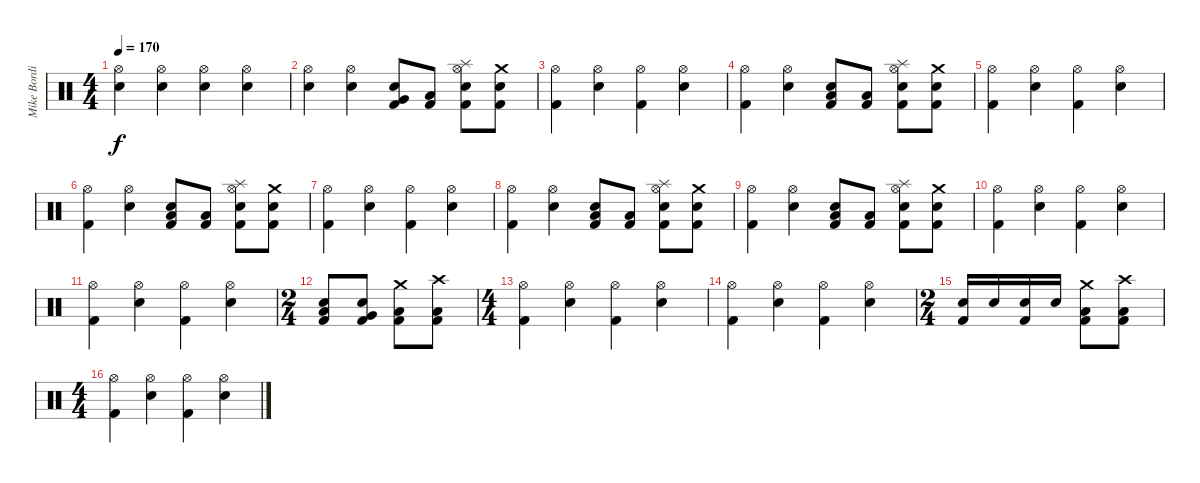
\track ("Mike Bordin" "Mike Bordi") {instrument percussion}
\staff {score}
\articulation defaults
\ts (4 4)
\tempo 170
\clef neutral
\ks c
("Hi-Hat (open)" "Electric Snare (hit)").4{dy f} ("Hi-Hat (open)" "Electric Snare (hit)").4 ("Hi-Hat (open)" "Electric Snare (hit)").4 ("Hi-Hat (open)" "Electric Snare (hit)").4 |
("Hi-Hat (open)" "Electric Snare (hit)").4 ("Hi-Hat (open)" "Electric Snare (hit)").4 ("Electric Snare (hit)" "Very Low Tom (hit)" "Kick (hit) 2").8 ("Low Floor Tom (hit)" "Kick (hit) 2").8 ("Splash (hit)" "Hi-Hat (open)" "Electric Snare (hit)" "Kick (hit) 2").8 ("Crash medium (hit)" "Electric Snare (hit)" "Kick (hit) 2").8 |
("Hi-Hat (open)" "Kick (hit) 2").4 ("Hi-Hat (open)" "Electric Snare (hit)").4 ("Hi-Hat (open)" "Kick (hit) 2").4 ("Hi-Hat (open)" "Electric Snare (hit)").4 |
("Hi-Hat (open)" "Kick (hit) 2").4 ("Hi-Hat (open)" "Electric Snare (hit)").4 ("Electric Snare (hit)" "Low Floor Tom (hit)" "Kick (hit) 2").8 ("Low Floor Tom (hit)" "Kick (hit) 2").8 ("Splash (hit)" "Hi-Hat (open)" "Electric Snare (hit)" "Kick (hit) 2").8 ("Crash medium (hit)" "Electric Snare (hit)" "Kick (hit) 2").8 |
("Hi-Hat (open)" "Kick (hit) 2").4 ("Hi-Hat (open)" "Electric Snare (hit)").4 ("Hi-Hat (open)" "Kick (hit) 2").4 ("Hi-Hat (open)" "Electric Snare (hit)").4 |
("Hi-Hat (open)" "Kick (hit) 2").4 ("Hi-Hat (open)" "Electric Snare (hit)").4 ("Electric Snare (hit)" "Low Floor Tom (hit)" "Kick (hit) 2").8 ("Low Floor Tom (hit)" "Kick (hit) 2").8 ("Splash (hit)" "Hi-Hat (open)" "Electric Snare (hit)" "Kick (hit) 2").8 ("Crash medium (hit)" "Electric Snare (hit)" "Kick (hit) 2").8 |
("Hi-Hat (open)" "Kick (hit) 2").4 ("Hi-Hat (open)" "Electric Snare (hit)").4 ("Hi-Hat (open)" "Kick (hit) 2").4 ("Hi-Hat (open)" "Electric Snare (hit)").4 |
("Hi-Hat (open)" "Kick (hit) 2").4 ("Hi-Hat (open)" "Electric Snare (hit)").4 ("Electric Snare (hit)" "Low Floor Tom (hit)" "Kick (hit) 2").8 ("Low Floor Tom (hit)" "Kick (hit) 2").8 ("Splash (hit)" "Hi-Hat (open)" "Electric Snare (hit)" "Kick (hit) 2").8 ("Crash medium (hit)" "Electric Snare (hit)" "Kick (hit) 2").8 |
("Hi-Hat (open)" "Kick (hit) 2").4 ("Hi-Hat (open)" "Electric Snare (hit)").4 ("Electric Snare (hit)" "Low Floor Tom (hit)" "Kick (hit) 2").8 ("Low Floor Tom (hit)" "Kick (hit) 2").8 ("Splash (hit)" "Hi-Hat (open)" "Electric Snare (hit)" "Kick (hit) 2").8 ("Crash medium (hit)" "Electric Snare (hit)" "Kick (hit) 2").8 |
("Hi-Hat (open)" "Kick (hit) 2").4 ("Hi-Hat (open)" "Electric Snare (hit)").4 ("Hi-Hat (open)" "Kick (hit) 2").4 ("Hi-Hat (open)" "Electric Snare (hit)").4 |
("Hi-Hat (open)" "Kick (hit) 2").4 ("Hi-Hat (open)" "Electric Snare (hit)").4 ("Hi-Hat (open)" "Kick (hit) 2").4 ("Hi-Hat (open)" "Electric Snare (hit)").4 |
\ts (2 4)
("Electric Snare (hit)" "Low Tom (hit)" "Kick (hit) 2").8 ("Electric Snare (hit)" "Very Low Tom (hit)" "Kick (hit) 2").8 ("Crash medium (hit)" "Low Floor Tom (hit)" "Kick (hit) 2").8 ("Crash high (hit)" "Low Floor Tom (hit)" "Kick (hit) 2").8 |
\ts (4 4)
("Hi-Hat (open)" "Kick (hit) 2").4 ("Hi-Hat (open)" "Electric Snare (hit)").4 ("Hi-Hat (open)" "Kick (hit) 2").4 ("Hi-Hat (open)" "Electric Snare (hit)").4 |
("Hi-Hat (open)" "Kick (hit) 2").4 ("Hi-Hat (open)" "Electric Snare (hit)").4 ("Hi-Hat (open)" "Kick (hit) 2").4 ("Hi-Hat (open)" "Electric Snare (hit)").4 |
\ts (2 4)
("Electric Snare (hit)" "Kick (hit) 2").16 "Electric Snare (hit)".16 ("Electric Snare (hit)" "Kick (hit) 2").16 "Electric Snare (hit)".16 ("Crash medium (hit)" "Low Floor Tom (hit)" "Kick (hit) 2").8 ("Crash high (hit)" "Low Floor Tom (hit)" "Kick (hit) 2").8 |
\ts (4 4)
("Hi-Hat (open)" "Kick (hit) 2").4 ("Hi-Hat (open)" "Electric Snare (hit)").4 ("Hi-Hat (open)" "Kick (hit) 2").4 ("Hi-Hat (open)" "Electric Snare (hit)").4
